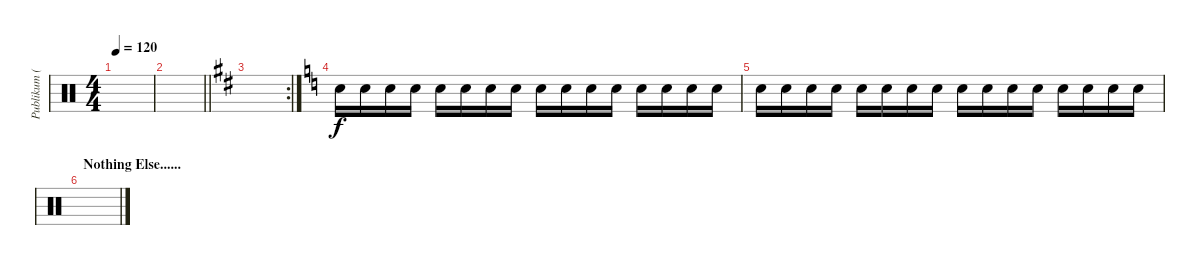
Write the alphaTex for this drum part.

\track ("Publikum (klapper)" "Publikum (") {instrument percussion}
\staff {score}
\articulation defaults
\ts (4 4)
\tempo 120
\clef neutral
\ks c
|
\barLineRight lightlight
|
\rc 2
\ks d
|
\ks c "Hand Clap (hit)".16 "Hand Clap (hit)".16 "Hand Clap (hit)".16 "Hand Clap (hit)".16 "Hand Clap (hit)".16 "Hand Clap (hit)".16 "Hand Clap (hit)".16 "Hand Clap (hit)".16 "Hand Clap (hit)".16 "Hand Clap (hit)".16 "Hand Clap (hit)".16 "Hand Clap (hit)".16 "Hand Clap (hit)".16 "Hand Clap (hit)".16 "Hand Clap (hit)".16 "Hand Clap (hit)".16
|
"Hand Clap (hit)".16 "Hand Clap (hit)".16 "Hand Clap (hit)".16 "Hand Clap (hit)".16 "Hand Clap (hit)".16 "Hand Clap (hit)".16 "Hand Clap (hit)".16 "Hand Clap (hit)".16 "Hand Clap (hit)".16 "Hand Clap (hit)".16 "Hand Clap (hit)".16 "Hand Clap (hit)".16 "Hand Clap (hit)".16 "Hand Clap (hit)".16 "Hand Clap (hit)".16 "Hand Clap (hit)".16 |
\section ("" "Nothing Else......")
